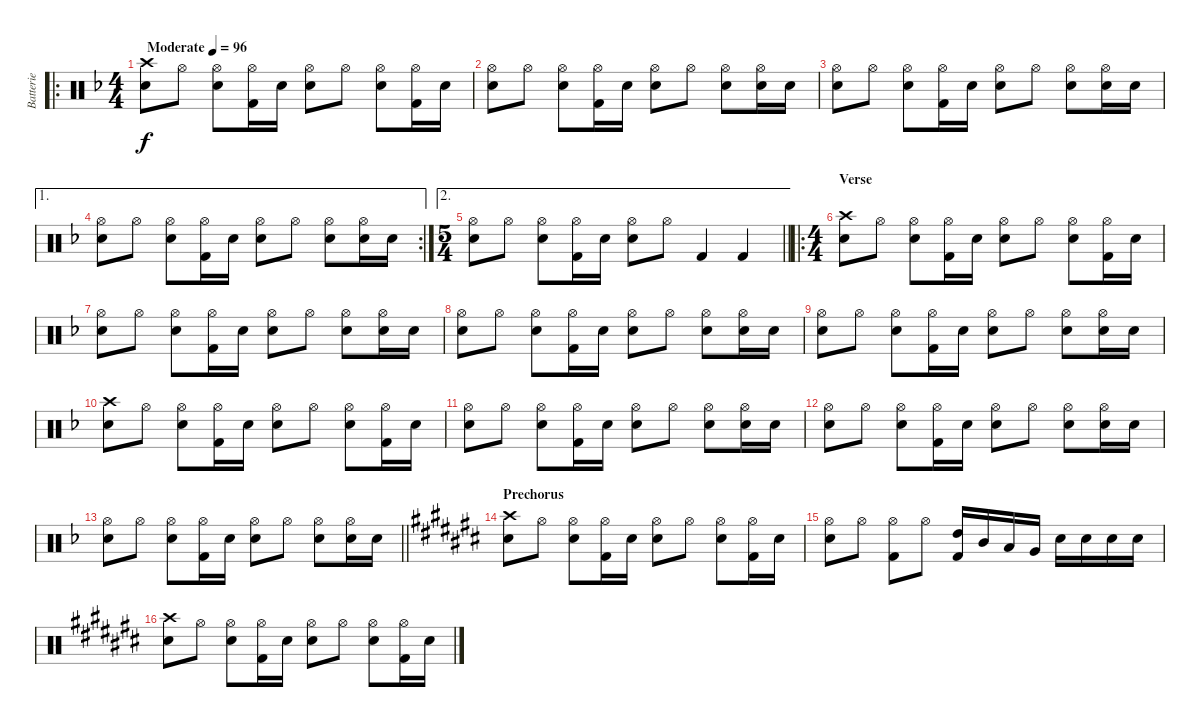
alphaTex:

\track ("Batterie" "Batterie") {instrument percussion}
\staff {score}
\articulation defaults
\ro
\ts (4 4)
\tempo (96 "Moderate")
\clef neutral
\ks f
("Crash high (hit)" "Snare (hit) 2").8{dy f} "Hi-Hat (open)".8 ("Hi-Hat (open)" "Snare (hit) 2").8 ("Hi-Hat (open)" "Kick (hit) 2").16 "Snare (hit) 2".16 ("Hi-Hat (open)" "Snare (hit) 2").8 "Hi-Hat (open)".8 ("Hi-Hat (open)" "Snare (hit) 2").8 ("Hi-Hat (open)" "Kick (hit) 2").16 "Snare (hit) 2".16 |
("Hi-Hat (open)" "Snare (hit) 2").8 "Hi-Hat (open)".8 ("Hi-Hat (open)" "Snare (hit) 2").8 ("Hi-Hat (open)" "Kick (hit) 2").16 "Snare (hit) 2".16 ("Hi-Hat (open)" "Snare (hit) 2").8 "Hi-Hat (open)".8 ("Hi-Hat (open)" "Snare (hit) 2").8 ("Hi-Hat (open)" "Snare (hit) 2").16 "Snare (hit) 2".16 |
("Hi-Hat (open)" "Snare (hit) 2").8 "Hi-Hat (open)".8 ("Hi-Hat (open)" "Snare (hit) 2").8 ("Hi-Hat (open)" "Kick (hit) 2").16 "Snare (hit) 2".16 ("Hi-Hat (open)" "Snare (hit) 2").8 "Hi-Hat (open)".8 ("Hi-Hat (open)" "Snare (hit) 2").8 ("Hi-Hat (open)" "Snare (hit) 2").16 "Snare (hit) 2".16 |
\ae 1
\rc 2
("Hi-Hat (open)" "Snare (hit) 2").8 "Hi-Hat (open)".8 ("Hi-Hat (open)" "Snare (hit) 2").8 ("Hi-Hat (open)" "Kick (hit) 2").16 "Snare (hit) 2".16 ("Hi-Hat (open)" "Snare (hit) 2").8 "Hi-Hat (open)".8 ("Hi-Hat (open)" "Snare (hit) 2").8 ("Hi-Hat (open)" "Snare (hit) 2").16 "Snare (hit) 2".16 |
\ae 2
\ts (5 4)
\barLineRight lightlight
("Hi-Hat (open)" "Snare (hit) 2").8 "Hi-Hat (open)".8 ("Hi-Hat (open)" "Snare (hit) 2").8 ("Hi-Hat (open)" "Kick (hit) 2").16 "Snare (hit) 2".16 ("Hi-Hat (open)" "Snare (hit) 2").8 "Hi-Hat (open)".8 "Kick (hit) 2".4 "Kick (hit) 2".4 |
\ro
\ts (4 4)
\section ("" "Verse")
("Crash high (hit)" "Snare (hit) 2").8 "Hi-Hat (open)".8 ("Hi-Hat (open)" "Snare (hit) 2").8 ("Hi-Hat (open)" "Kick (hit) 2").16 "Snare (hit) 2".16 ("Hi-Hat (open)" "Snare (hit) 2").8 "Hi-Hat (open)".8 ("Hi-Hat (open)" "Snare (hit) 2").8 ("Hi-Hat (open)" "Kick (hit) 2").16 "Snare (hit) 2".16 |
("Hi-Hat (open)" "Snare (hit) 2").8 "Hi-Hat (open)".8 ("Hi-Hat (open)" "Snare (hit) 2").8 ("Hi-Hat (open)" "Kick (hit) 2").16 "Snare (hit) 2".16 ("Hi-Hat (open)" "Snare (hit) 2").8 "Hi-Hat (open)".8 ("Hi-Hat (open)" "Snare (hit) 2").8 ("Hi-Hat (open)" "Snare (hit) 2").16 "Snare (hit) 2".16 |
("Hi-Hat (open)" "Snare (hit) 2").8 "Hi-Hat (open)".8 ("Hi-Hat (open)" "Snare (hit) 2").8 ("Hi-Hat (open)" "Kick (hit) 2").16 "Snare (hit) 2".16 ("Hi-Hat (open)" "Snare (hit) 2").8 "Hi-Hat (open)".8 ("Hi-Hat (open)" "Snare (hit) 2").8 ("Hi-Hat (open)" "Snare (hit) 2").16 "Snare (hit) 2".16 |
("Hi-Hat (open)" "Snare (hit) 2").8 "Hi-Hat (open)".8 ("Hi-Hat (open)" "Snare (hit) 2").8 ("Hi-Hat (open)" "Kick (hit) 2").16 "Snare (hit) 2".16 ("Hi-Hat (open)" "Snare (hit) 2").8 "Hi-Hat (open)".8 ("Hi-Hat (open)" "Snare (hit) 2").8 ("Hi-Hat (open)" "Snare (hit) 2").16 "Snare (hit) 2".16 |
("Crash high (hit)" "Snare (hit) 2").8 "Hi-Hat (open)".8 ("Hi-Hat (open)" "Snare (hit) 2").8 ("Hi-Hat (open)" "Kick (hit) 2").16 "Snare (hit) 2".16 ("Hi-Hat (open)" "Snare (hit) 2").8 "Hi-Hat (open)".8 ("Hi-Hat (open)" "Snare (hit) 2").8 ("Hi-Hat (open)" "Kick (hit) 2").16 "Snare (hit) 2".16 |
("Hi-Hat (open)" "Snare (hit) 2").8 "Hi-Hat (open)".8 ("Hi-Hat (open)" "Snare (hit) 2").8 ("Hi-Hat (open)" "Kick (hit) 2").16 "Snare (hit) 2".16 ("Hi-Hat (open)" "Snare (hit) 2").8 "Hi-Hat (open)".8 ("Hi-Hat (open)" "Snare (hit) 2").8 ("Hi-Hat (open)" "Snare (hit) 2").16 "Snare (hit) 2".16 |
("Hi-Hat (open)" "Snare (hit) 2").8 "Hi-Hat (open)".8 ("Hi-Hat (open)" "Snare (hit) 2").8 ("Hi-Hat (open)" "Kick (hit) 2").16 "Snare (hit) 2".16 ("Hi-Hat (open)" "Snare (hit) 2").8 "Hi-Hat (open)".8 ("Hi-Hat (open)" "Snare (hit) 2").8 ("Hi-Hat (open)" "Snare (hit) 2").16 "Snare (hit) 2".16 |
\barLineRight lightlight
("Hi-Hat (open)" "Snare (hit) 2").8 "Hi-Hat (open)".8 ("Hi-Hat (open)" "Snare (hit) 2").8 ("Hi-Hat (open)" "Kick (hit) 2").16 "Snare (hit) 2".16 ("Hi-Hat (open)" "Snare (hit) 2").8 "Hi-Hat (open)".8 ("Hi-Hat (open)" "Snare (hit) 2").8 ("Hi-Hat (open)" "Snare (hit) 2").16 "Snare (hit) 2".16 |
\section ("" "Prechorus")
\ks c#
("Crash high (hit)" "Snare (hit) 2").8 "Hi-Hat (open)".8 ("Hi-Hat (open)" "Snare (hit) 2").8 ("Hi-Hat (open)" "Kick (hit) 2").16 "Snare (hit) 2".16 ("Hi-Hat (open)" "Snare (hit) 2").8 "Hi-Hat (open)".8 ("Hi-Hat (open)" "Snare (hit) 2").8 ("Hi-Hat (open)" "Kick (hit) 2").16 "Snare (hit) 2".16 |
("Hi-Hat (open)" "Snare (hit) 2").8 "Hi-Hat (open)".8 ("Hi-Hat (open)" "Kick (hit) 2").8 "Hi-Hat (open)".8 ("High Tom (hit)" "Kick (hit) 2").16 "Mid Tom (hit)".16 "Low Tom (hit)".16 "Very Low Tom (hit)".16 "Snare (hit) 2".16 "Snare (hit) 2".16 "Snare (hit) 2".16 "Snare (hit) 2".16 |
("Crash high (hit)" "Snare (hit) 2").8 "Hi-Hat (open)".8 ("Hi-Hat (open)" "Snare (hit) 2").8 ("Hi-Hat (open)" "Kick (hit) 2").16 "Snare (hit) 2".16 ("Hi-Hat (open)" "Snare (hit) 2").8 "Hi-Hat (open)".8 ("Hi-Hat (open)" "Snare (hit) 2").8 ("Hi-Hat (open)" "Kick (hit) 2").16 "Snare (hit) 2".16
